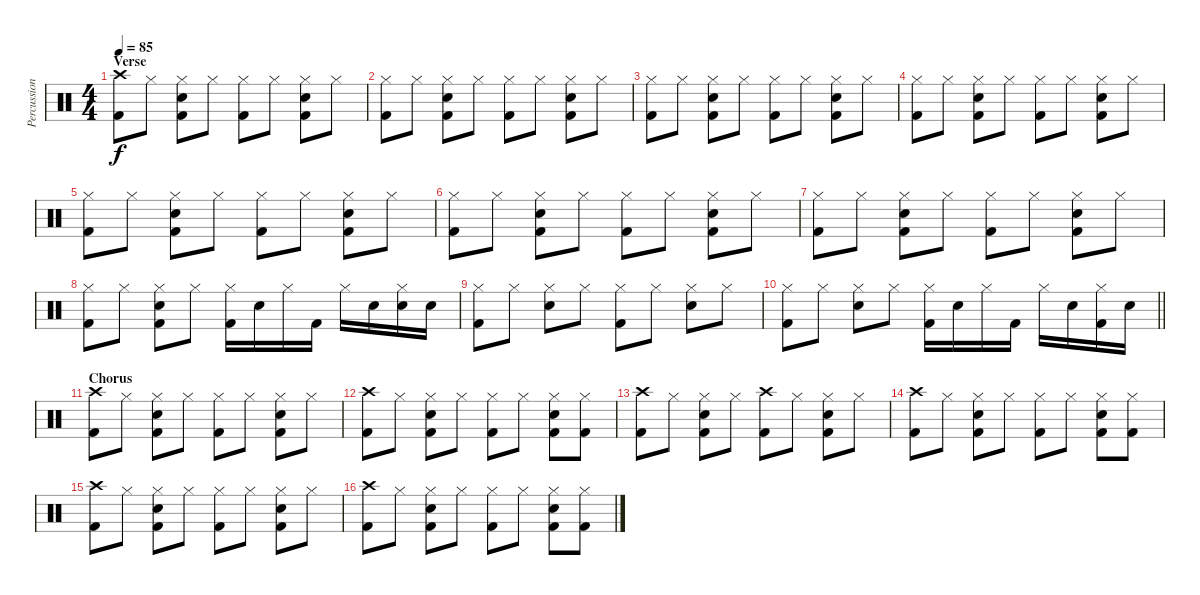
\track ("Percussion" "Percussion") {instrument percussion}
\staff {score}
\articulation defaults
\ts (4 4)
\section ("" "Verse")
\tempo 85
\clef neutral
\ks c
("Crash high (hit)" "Kick (hit) 2").8{dy f} "Hi-Hat (closed)".8 ("Hi-Hat (closed)" "Electric Snare (hit)" "Kick (hit) 2").8 "Hi-Hat (closed)".8 ("Hi-Hat (closed)" "Kick (hit) 2").8 "Hi-Hat (closed)".8 ("Hi-Hat (closed)" "Electric Snare (hit)" "Kick (hit) 2").8 "Hi-Hat (closed)".8 |
("Hi-Hat (closed)" "Kick (hit) 2").8 "Hi-Hat (closed)".8 ("Hi-Hat (closed)" "Electric Snare (hit)" "Kick (hit) 2").8 "Hi-Hat (closed)".8 ("Hi-Hat (closed)" "Kick (hit) 2").8 "Hi-Hat (closed)".8 ("Hi-Hat (closed)" "Electric Snare (hit)" "Kick (hit) 2").8 "Hi-Hat (closed)".8 |
("Hi-Hat (closed)" "Kick (hit) 2").8 "Hi-Hat (closed)".8 ("Hi-Hat (closed)" "Electric Snare (hit)" "Kick (hit) 2").8 "Hi-Hat (closed)".8 ("Hi-Hat (closed)" "Kick (hit) 2").8 "Hi-Hat (closed)".8 ("Hi-Hat (closed)" "Electric Snare (hit)" "Kick (hit) 2").8 "Hi-Hat (closed)".8 |
("Hi-Hat (closed)" "Kick (hit) 2").8 "Hi-Hat (closed)".8 ("Hi-Hat (closed)" "Electric Snare (hit)" "Kick (hit) 2").8 "Hi-Hat (closed)".8 ("Hi-Hat (closed)" "Kick (hit) 2").8 "Hi-Hat (closed)".8 ("Hi-Hat (closed)" "Electric Snare (hit)" "Kick (hit) 2").8 "Hi-Hat (closed)".8 |
("Hi-Hat (closed)" "Kick (hit) 2").8 "Hi-Hat (closed)".8 ("Hi-Hat (closed)" "Electric Snare (hit)" "Kick (hit) 2").8 "Hi-Hat (closed)".8 ("Hi-Hat (closed)" "Kick (hit) 2").8 "Hi-Hat (closed)".8 ("Hi-Hat (closed)" "Electric Snare (hit)" "Kick (hit) 2").8 "Hi-Hat (closed)".8 |
("Hi-Hat (closed)" "Kick (hit) 2").8 "Hi-Hat (closed)".8 ("Hi-Hat (closed)" "Electric Snare (hit)" "Kick (hit) 2").8 "Hi-Hat (closed)".8 ("Hi-Hat (closed)" "Kick (hit) 2").8 "Hi-Hat (closed)".8 ("Hi-Hat (closed)" "Electric Snare (hit)" "Kick (hit) 2").8 "Hi-Hat (closed)".8 |
("Hi-Hat (closed)" "Kick (hit) 2").8 "Hi-Hat (closed)".8 ("Hi-Hat (closed)" "Electric Snare (hit)" "Kick (hit) 2").8 "Hi-Hat (closed)".8 ("Hi-Hat (closed)" "Kick (hit) 2").8 "Hi-Hat (closed)".8 ("Hi-Hat (closed)" "Electric Snare (hit)" "Kick (hit) 2").8 "Hi-Hat (closed)".8 |
("Hi-Hat (closed)" "Kick (hit) 2").8 "Hi-Hat (closed)".8 ("Hi-Hat (closed)" "Electric Snare (hit)" "Kick (hit) 2").8 "Hi-Hat (closed)".8 ("Hi-Hat (closed)" "Kick (hit) 2").16 "Electric Snare (hit)".16 "Hi-Hat (closed)".16 "Kick (hit) 2".16 "Hi-Hat (closed)".16 "Electric Snare (hit)".16 ("Hi-Hat (closed)" "Electric Snare (hit)").16 "Electric Snare (hit)".16 |
("Hi-Hat (closed)" "Kick (hit) 2").8 "Hi-Hat (closed)".8 ("Hi-Hat (closed)" "Electric Snare (hit)").8 "Hi-Hat (closed)".8 ("Hi-Hat (closed)" "Kick (hit) 2").8 "Hi-Hat (closed)".8 ("Hi-Hat (closed)" "Electric Snare (hit)").8 "Hi-Hat (closed)".8 |
\barLineRight lightlight
("Hi-Hat (closed)" "Kick (hit) 2").8 "Hi-Hat (closed)".8 ("Hi-Hat (closed)" "Electric Snare (hit)").8 "Hi-Hat (closed)".8 ("Hi-Hat (closed)" "Kick (hit) 2").16 "Electric Snare (hit)".16 "Hi-Hat (closed)".16 "Kick (hit) 2".16 "Hi-Hat (closed)".16 "Electric Snare (hit)".16 ("Hi-Hat (closed)" "Kick (hit) 2").16 "Electric Snare (hit)".16 |
\section ("" "Chorus")
("Crash high (hit)" "Kick (hit) 2").8 "Hi-Hat (closed)".8 ("Hi-Hat (closed)" "Electric Snare (hit)" "Kick (hit) 2").8 "Hi-Hat (closed)".8 ("Hi-Hat (closed)" "Kick (hit) 2").8 "Hi-Hat (closed)".8 ("Hi-Hat (closed)" "Electric Snare (hit)" "Kick (hit) 2").8 "Hi-Hat (closed)".8 |
("Crash high (hit)" "Kick (hit) 2").8 "Hi-Hat (closed)".8 ("Hi-Hat (closed)" "Electric Snare (hit)" "Kick (hit) 2").8 "Hi-Hat (closed)".8 ("Hi-Hat (closed)" "Kick (hit) 2").8 "Hi-Hat (closed)".8 ("Hi-Hat (closed)" "Electric Snare (hit)" "Kick (hit) 2").8 ("Hi-Hat (closed)" "Kick (hit) 2").8 |
("Crash high (hit)" "Kick (hit) 2").8 "Hi-Hat (closed)".8 ("Hi-Hat (closed)" "Electric Snare (hit)" "Kick (hit) 2").8 "Hi-Hat (closed)".8 ("Crash high (hit)" "Kick (hit) 2").8 "Hi-Hat (closed)".8 ("Hi-Hat (closed)" "Electric Snare (hit)" "Kick (hit) 2").8 "Hi-Hat (closed)".8 |
("Crash high (hit)" "Kick (hit) 2").8 "Hi-Hat (closed)".8 ("Hi-Hat (closed)" "Electric Snare (hit)" "Kick (hit) 2").8 "Hi-Hat (closed)".8 ("Hi-Hat (closed)" "Kick (hit) 2").8 "Hi-Hat (closed)".8 ("Hi-Hat (closed)" "Electric Snare (hit)" "Kick (hit) 2").8 ("Hi-Hat (closed)" "Kick (hit) 2").8 |
("Crash high (hit)" "Kick (hit) 2").8 "Hi-Hat (closed)".8 ("Hi-Hat (closed)" "Electric Snare (hit)" "Kick (hit) 2").8 "Hi-Hat (closed)".8 ("Hi-Hat (closed)" "Kick (hit) 2").8 "Hi-Hat (closed)".8 ("Hi-Hat (closed)" "Electric Snare (hit)" "Kick (hit) 2").8 "Hi-Hat (closed)".8 |
("Crash high (hit)" "Kick (hit) 2").8 "Hi-Hat (closed)".8 ("Hi-Hat (closed)" "Electric Snare (hit)" "Kick (hit) 2").8 "Hi-Hat (closed)".8 ("Hi-Hat (closed)" "Kick (hit) 2").8 "Hi-Hat (closed)".8 ("Hi-Hat (closed)" "Electric Snare (hit)" "Kick (hit) 2").8 ("Hi-Hat (closed)" "Kick (hit) 2").8
